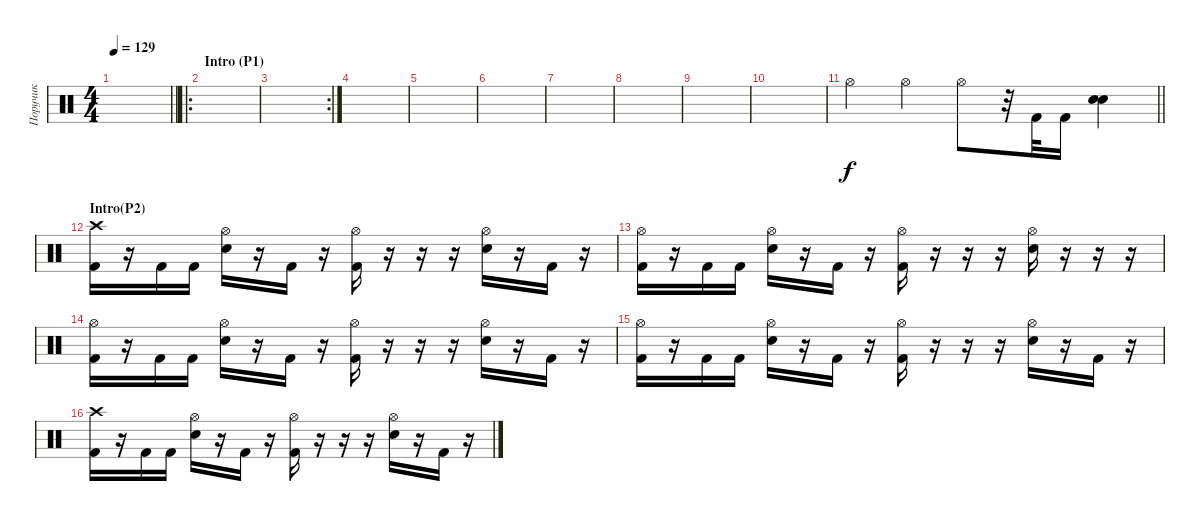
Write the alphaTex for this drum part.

\track ("Поручик" "Поручик") {instrument percussion}
\staff {score}
\articulation defaults
\ts (4 4)
\tempo 129
\clef neutral
\barLineRight lightlight
\ks c
|
\ro
\section ("" "Intro (P1)")
|
\rc 2
|
|
|
|
|
|
|
|
\barLineRight lightlight "Hi-Hat (open)".4 "Hi-Hat (open)".4 "Hi-Hat (open)".8
r.32 "Kick (hit) 2".32 "Kick (hit) 2".16 ("Snare (hit) 2" "Snare (hit) 2").4 |
\section ("" "Intro(P2)")
("Crash high (hit)" "Kick (hit) 2").16 r.16 "Kick (hit) 2".16 "Kick (hit) 2".16 ("Hi-Hat (open)" "Snare (hit) 2").16 r.16 "Kick (hit) 2".16 r.16 ("Hi-Hat (open)" "Kick (hit) 2").16 r.16 r.16 r.16 ("Hi-Hat (open)" "Snare (hit) 2").16 r.16 "Kick (hit) 2".16 r.16 |
("Hi-Hat (open)" "Kick (hit) 2").16 r.16 "Kick (hit) 2".16 "Kick (hit) 2".16 ("Hi-Hat (open)" "Snare (hit) 2").16 r.16 "Kick (hit) 2".16 r.16 ("Hi-Hat (open)" "Kick (hit) 2").16 r.16 r.16 r.16 ("Hi-Hat (open)" "Snare (hit) 2").16 r.16 r.16 r.16 |
("Hi-Hat (open)" "Kick (hit) 2").16 r.16 "Kick (hit) 2".16 "Kick (hit) 2".16 ("Hi-Hat (open)" "Snare (hit) 2").16 r.16 "Kick (hit) 2".16 r.16 ("Hi-Hat (open)" "Kick (hit) 2").16 r.16 r.16 r.16 ("Hi-Hat (open)" "Snare (hit) 2").16 r.16 "Kick (hit) 2".16 r.16 |
("Hi-Hat (open)" "Kick (hit) 2").16 r.16 "Kick (hit) 2".16 "Kick (hit) 2".16 ("Hi-Hat (open)" "Snare (hit) 2").16 r.16 "Kick (hit) 2".16 r.16 ("Hi-Hat (open)" "Kick (hit) 2").16 r.16 r.16 r.16 ("Hi-Hat (open)" "Snare (hit) 2").16 r.16 "Kick (hit) 2".16 r.16 |
("Crash high (hit)" "Kick (hit) 2").16 r.16 "Kick (hit) 2".16 "Kick (hit) 2".16 ("Hi-Hat (open)" "Snare (hit) 2").16 r.16 "Kick (hit) 2".16 r.16 ("Hi-Hat (open)" "Kick (hit) 2").16 r.16 r.16 r.16 ("Hi-Hat (open)" "Snare (hit) 2").16 r.16 "Kick (hit) 2".16 r.16
